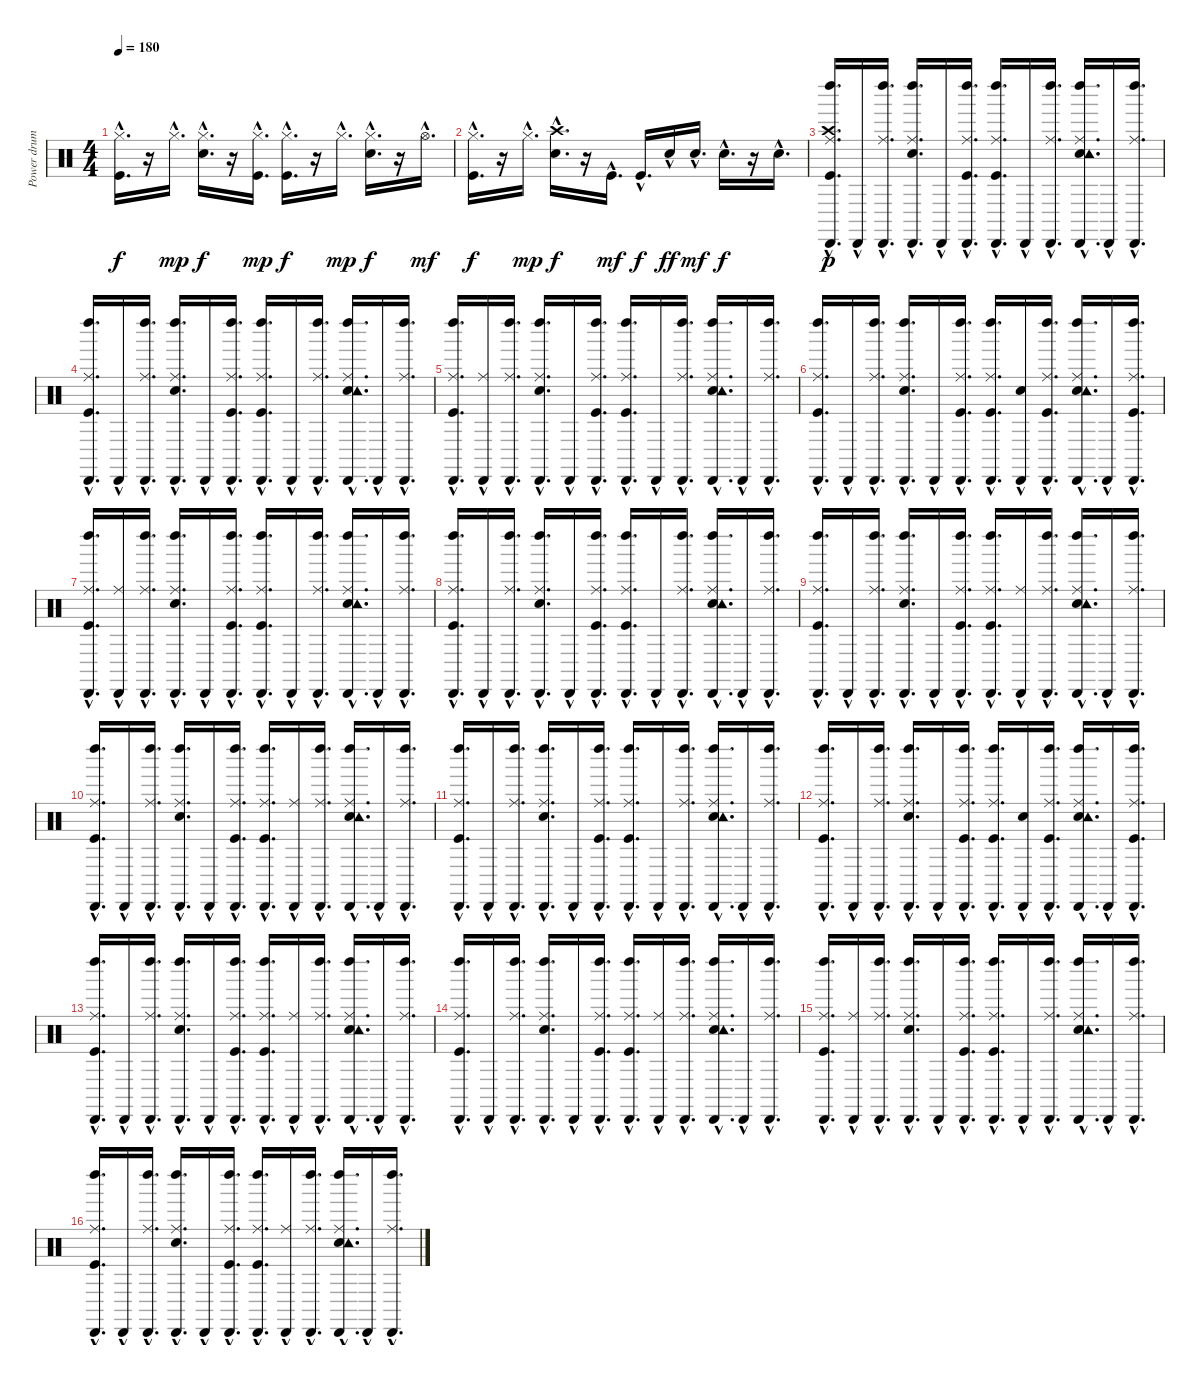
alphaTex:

\track ("Power drum" "Power drum") {instrument percussion}
\staff {score}
\articulation defaults
\ts (4 4)
\tempo 180
\clef neutral
\ks c
("Kick (hit)"{hac} "Hi-Hat (closed)"{hac}).16{d dy f} r.16 "Hi-Hat (closed)"{hac}.16{d dy mp} ("Snare (hit) 2"{hac} "Hi-Hat (closed)"{hac}).16{d dy f} r.16 ("Kick (hit)"{hac} "Hi-Hat (closed)"{hac}).16{d dy mp} ("Kick (hit)"{hac} "Hi-Hat (closed)"{hac}).16{d dy f} r.16 "Hi-Hat (closed)"{hac}.16{d dy mp} ("Snare (hit) 2"{hac} "Hi-Hat (closed)"{hac}).16{d dy f} r.16 "Hi-Hat (open)"{hac}.16{d dy mf} |
("Kick (hit)"{hac} "Hi-Hat (closed)"{hac}).16{d dy f} r.16 "Hi-Hat (closed)"{hac}.16{d dy mp} ("Snare (hit) 2"{hac} "Crash high (hit)"{hac}).16{d dy f} r.16 "Kick (hit)"{hac}.16{d dy mf} "Kick (hit)"{hac}.16{d dy f} "Snare (hit) 2"{hac}.16{dy ff} "Snare (hit) 2"{hac}.16{d dy mf} "Snare (hit) 2"{hac}.16{d dy f} r.16 "Snare (hit) 2"{hac}.16{d} |
("Kick (hit)"{hac} "Ride (middle)"{hac} "Crash high (hit)"{hac} "Left Maraca (hit)"{hac} "Cabasa (hit)"{hac}).16{d dy p} "Cabasa (hit)"{hac}.16 ("Ride (middle)"{hac} "Left Maraca (hit)"{hac} "Cabasa (hit)"{hac}).16{d} ("Snare (hit) 2"{hac} "Ride (middle)"{hac} "Left Maraca (hit)"{hac} "Cabasa (hit)"{hac}).16{d} "Cabasa (hit)"{hac}.16 ("Kick (hit)"{hac} "Ride (middle)"{hac} "Left Maraca (hit)"{hac} "Cabasa (hit)"{hac}).16{d} ("Kick (hit)"{hac} "Ride (middle)"{hac} "Left Maraca (hit)"{hac} "Cabasa (hit)"{hac}).16{d} "Cabasa (hit)"{hac}.16 ("Ride (middle)"{hac} "Left Maraca (hit)"{hac} "Cabasa (hit)"{hac}).16{d} ("Snare (hit) 2"{hac} "Ride (middle)"{hac} "Tambourine (hit)"{hac} "Left Maraca (hit)"{hac} "Cabasa (hit)"{hac}).16{d} "Cabasa (hit)"{hac}.16 ("Ride (middle)"{hac} "Left Maraca (hit)"{hac} "Cabasa (hit)"{hac}).16{d} |
("Kick (hit)"{hac} "Ride (middle)"{hac} "Left Maraca (hit)"{hac} "Cabasa (hit)"{hac}).16{d} "Cabasa (hit)"{hac}.16 ("Ride (middle)"{hac} "Left Maraca (hit)"{hac} "Cabasa (hit)"{hac}).16{d} ("Snare (hit) 2"{hac} "Ride (middle)"{hac} "Left Maraca (hit)"{hac} "Cabasa (hit)"{hac}).16{d} "Cabasa (hit)"{hac}.16 ("Kick (hit)"{hac} "Ride (middle)"{hac} "Left Maraca (hit)"{hac} "Cabasa (hit)"{hac}).16{d} ("Kick (hit)"{hac} "Ride (middle)"{hac} "Left Maraca (hit)"{hac} "Cabasa (hit)"{hac}).16{d} "Cabasa (hit)"{hac}.16 ("Ride (middle)"{hac} "Left Maraca (hit)"{hac} "Cabasa (hit)"{hac}).16{d} ("Snare (hit) 2"{hac} "Ride (middle)"{hac} "Tambourine (hit)"{hac} "Left Maraca (hit)"{hac} "Cabasa (hit)"{hac}).16{d} "Cabasa (hit)"{hac}.16 ("Ride (middle)"{hac} "Left Maraca (hit)"{hac} "Cabasa (hit)"{hac}).16{d} |
("Kick (hit)"{hac} "Ride (middle)"{hac} "Left Maraca (hit)"{hac} "Cabasa (hit)"{hac}).16{d} ("Ride (middle)"{hac} "Cabasa (hit)"{hac}).16 ("Ride (middle)"{hac} "Left Maraca (hit)"{hac} "Cabasa (hit)"{hac}).16{d} ("Snare (hit) 2"{hac} "Ride (middle)"{hac} "Left Maraca (hit)"{hac} "Cabasa (hit)"{hac}).16{d} "Cabasa (hit)"{hac}.16 ("Kick (hit)"{hac} "Ride (middle)"{hac} "Left Maraca (hit)"{hac} "Cabasa (hit)"{hac}).16{d} ("Kick (hit)"{hac} "Ride (middle)"{hac} "Left Maraca (hit)"{hac} "Cabasa (hit)"{hac}).16{d} "Cabasa (hit)"{hac}.16 ("Ride (middle)"{hac} "Left Maraca (hit)"{hac} "Cabasa (hit)"{hac}).16{d} ("Snare (hit) 2"{hac} "Ride (middle)"{hac} "Tambourine (hit)"{hac} "Left Maraca (hit)"{hac} "Cabasa (hit)"{hac}).16{d} "Cabasa (hit)"{hac}.16 ("Ride (middle)"{hac} "Left Maraca (hit)"{hac} "Cabasa (hit)"{hac}).16{d} |
("Kick (hit)"{hac} "Ride (middle)"{hac} "Left Maraca (hit)"{hac} "Cabasa (hit)"{hac}).16{d} "Cabasa (hit)"{hac}.16 ("Ride (middle)"{hac} "Left Maraca (hit)"{hac} "Cabasa (hit)"{hac}).16{d} ("Snare (hit) 2"{hac} "Ride (middle)"{hac} "Left Maraca (hit)"{hac} "Cabasa (hit)"{hac}).16{d} "Cabasa (hit)"{hac}.16 ("Kick (hit)"{hac} "Ride (middle)"{hac} "Left Maraca (hit)"{hac} "Cabasa (hit)"{hac}).16{d} ("Kick (hit)"{hac} "Ride (middle)"{hac} "Left Maraca (hit)"{hac} "Cabasa (hit)"{hac}).16{d} ("Snare (hit) 2"{hac} "Cabasa (hit)"{hac}).16 ("Kick (hit)"{hac} "Ride (middle)"{hac} "Left Maraca (hit)"{hac} "Cabasa (hit)"{hac}).16{d} ("Snare (hit) 2"{hac} "Ride (middle)"{hac} "Tambourine (hit)"{hac} "Left Maraca (hit)"{hac} "Cabasa (hit)"{hac}).16{d} "Cabasa (hit)"{hac}.16 ("Kick (hit)"{hac} "Ride (middle)"{hac} "Left Maraca (hit)"{hac} "Cabasa (hit)"{hac}).16{d} |
("Kick (hit)"{hac} "Ride (middle)"{hac} "Left Maraca (hit)"{hac} "Cabasa (hit)"{hac}).16{d} ("Ride (middle)"{hac} "Cabasa (hit)"{hac}).16 ("Ride (middle)"{hac} "Left Maraca (hit)"{hac} "Cabasa (hit)"{hac}).16{d} ("Snare (hit) 2"{hac} "Ride (middle)"{hac} "Left Maraca (hit)"{hac} "Cabasa (hit)"{hac}).16{d} "Cabasa (hit)"{hac}.16 ("Kick (hit)"{hac} "Ride (middle)"{hac} "Left Maraca (hit)"{hac} "Cabasa (hit)"{hac}).16{d} ("Kick (hit)"{hac} "Ride (middle)"{hac} "Left Maraca (hit)"{hac} "Cabasa (hit)"{hac}).16{d} "Cabasa (hit)"{hac}.16 ("Ride (middle)"{hac} "Left Maraca (hit)"{hac} "Cabasa (hit)"{hac}).16{d} ("Snare (hit) 2"{hac} "Ride (middle)"{hac} "Tambourine (hit)"{hac} "Left Maraca (hit)"{hac} "Cabasa (hit)"{hac}).16{d} "Cabasa (hit)"{hac}.16 ("Ride (middle)"{hac} "Left Maraca (hit)"{hac} "Cabasa (hit)"{hac}).16{d} |
("Kick (hit)"{hac} "Ride (middle)"{hac} "Left Maraca (hit)"{hac} "Cabasa (hit)"{hac}).16{d} "Cabasa (hit)"{hac}.16 ("Ride (middle)"{hac} "Left Maraca (hit)"{hac} "Cabasa (hit)"{hac}).16{d} ("Snare (hit) 2"{hac} "Ride (middle)"{hac} "Left Maraca (hit)"{hac} "Cabasa (hit)"{hac}).16{d} "Cabasa (hit)"{hac}.16 ("Kick (hit)"{hac} "Ride (middle)"{hac} "Left Maraca (hit)"{hac} "Cabasa (hit)"{hac}).16{d} ("Kick (hit)"{hac} "Ride (middle)"{hac} "Left Maraca (hit)"{hac} "Cabasa (hit)"{hac}).16{d} "Cabasa (hit)"{hac}.16 ("Ride (middle)"{hac} "Left Maraca (hit)"{hac} "Cabasa (hit)"{hac}).16{d} ("Snare (hit) 2"{hac} "Ride (middle)"{hac} "Tambourine (hit)"{hac} "Left Maraca (hit)"{hac} "Cabasa (hit)"{hac}).16{d} "Cabasa (hit)"{hac}.16 ("Ride (middle)"{hac} "Left Maraca (hit)"{hac} "Cabasa (hit)"{hac}).16{d} |
("Kick (hit)"{hac} "Ride (middle)"{hac} "Left Maraca (hit)"{hac} "Cabasa (hit)"{hac}).16{d} "Cabasa (hit)"{hac}.16 ("Ride (middle)"{hac} "Left Maraca (hit)"{hac} "Cabasa (hit)"{hac}).16{d} ("Snare (hit) 2"{hac} "Ride (middle)"{hac} "Left Maraca (hit)"{hac} "Cabasa (hit)"{hac}).16{d} "Cabasa (hit)"{hac}.16 ("Kick (hit)"{hac} "Ride (middle)"{hac} "Left Maraca (hit)"{hac} "Cabasa (hit)"{hac}).16{d} ("Kick (hit)"{hac} "Ride (middle)"{hac} "Left Maraca (hit)"{hac} "Cabasa (hit)"{hac}).16{d} ("Ride (middle)"{hac} "Cabasa (hit)"{hac}).16 ("Ride (middle)"{hac} "Left Maraca (hit)"{hac} "Cabasa (hit)"{hac}).16{d} ("Snare (hit) 2"{hac} "Ride (middle)"{hac} "Tambourine (hit)"{hac} "Left Maraca (hit)"{hac} "Cabasa (hit)"{hac}).16{d} "Cabasa (hit)"{hac}.16 ("Ride (middle)"{hac} "Left Maraca (hit)"{hac} "Cabasa (hit)"{hac}).16{d} |
("Kick (hit)"{hac} "Ride (middle)"{hac} "Left Maraca (hit)"{hac} "Cabasa (hit)"{hac}).16{d} "Cabasa (hit)"{hac}.16 ("Ride (middle)"{hac} "Left Maraca (hit)"{hac} "Cabasa (hit)"{hac}).16{d} ("Snare (hit) 2"{hac} "Ride (middle)"{hac} "Left Maraca (hit)"{hac} "Cabasa (hit)"{hac}).16{d} "Cabasa (hit)"{hac}.16 ("Kick (hit)"{hac} "Ride (middle)"{hac} "Left Maraca (hit)"{hac} "Cabasa (hit)"{hac}).16{d} ("Kick (hit)"{hac} "Ride (middle)"{hac} "Left Maraca (hit)"{hac} "Cabasa (hit)"{hac}).16{d} ("Ride (middle)"{hac} "Cabasa (hit)"{hac}).16 ("Ride (middle)"{hac} "Left Maraca (hit)"{hac} "Cabasa (hit)"{hac}).16{d} ("Snare (hit) 2"{hac} "Ride (middle)"{hac} "Tambourine (hit)"{hac} "Left Maraca (hit)"{hac} "Cabasa (hit)"{hac}).16{d} "Cabasa (hit)"{hac}.16 ("Ride (middle)"{hac} "Left Maraca (hit)"{hac} "Cabasa (hit)"{hac}).16{d} |
("Kick (hit)"{hac} "Ride (middle)"{hac} "Left Maraca (hit)"{hac} "Cabasa (hit)"{hac}).16{d} "Cabasa (hit)"{hac}.16 ("Ride (middle)"{hac} "Left Maraca (hit)"{hac} "Cabasa (hit)"{hac}).16{d} ("Snare (hit) 2"{hac} "Ride (middle)"{hac} "Left Maraca (hit)"{hac} "Cabasa (hit)"{hac}).16{d} "Cabasa (hit)"{hac}.16 ("Kick (hit)"{hac} "Ride (middle)"{hac} "Left Maraca (hit)"{hac} "Cabasa (hit)"{hac}).16{d} ("Kick (hit)"{hac} "Ride (middle)"{hac} "Left Maraca (hit)"{hac} "Cabasa (hit)"{hac}).16{d} "Cabasa (hit)"{hac}.16 ("Ride (middle)"{hac} "Left Maraca (hit)"{hac} "Cabasa (hit)"{hac}).16{d} ("Snare (hit) 2"{hac} "Ride (middle)"{hac} "Tambourine (hit)"{hac} "Left Maraca (hit)"{hac} "Cabasa (hit)"{hac}).16{d} "Cabasa (hit)"{hac}.16 ("Ride (middle)"{hac} "Left Maraca (hit)"{hac} "Cabasa (hit)"{hac}).16{d} |
("Kick (hit)"{hac} "Ride (middle)"{hac} "Left Maraca (hit)"{hac} "Cabasa (hit)"{hac}).16{d} "Cabasa (hit)"{hac}.16 ("Ride (middle)"{hac} "Left Maraca (hit)"{hac} "Cabasa (hit)"{hac}).16{d} ("Snare (hit) 2"{hac} "Ride (middle)"{hac} "Left Maraca (hit)"{hac} "Cabasa (hit)"{hac}).16{d} "Cabasa (hit)"{hac}.16 ("Kick (hit)"{hac} "Ride (middle)"{hac} "Left Maraca (hit)"{hac} "Cabasa (hit)"{hac}).16{d} ("Kick (hit)"{hac} "Ride (middle)"{hac} "Left Maraca (hit)"{hac} "Cabasa (hit)"{hac}).16{d} ("Snare (hit) 2"{hac} "Cabasa (hit)"{hac}).16 ("Kick (hit)"{hac} "Ride (middle)"{hac} "Left Maraca (hit)"{hac} "Cabasa (hit)"{hac}).16{d} ("Snare (hit) 2"{hac} "Ride (middle)"{hac} "Tambourine (hit)"{hac} "Left Maraca (hit)"{hac} "Cabasa (hit)"{hac}).16{d} "Cabasa (hit)"{hac}.16 ("Kick (hit)"{hac} "Ride (middle)"{hac} "Left Maraca (hit)"{hac} "Cabasa (hit)"{hac}).16{d} |
("Kick (hit)"{hac} "Ride (middle)"{hac} "Left Maraca (hit)"{hac} "Cabasa (hit)"{hac}).16{d} "Cabasa (hit)"{hac}.16 ("Ride (middle)"{hac} "Left Maraca (hit)"{hac} "Cabasa (hit)"{hac}).16{d} ("Snare (hit) 2"{hac} "Ride (middle)"{hac} "Left Maraca (hit)"{hac} "Cabasa (hit)"{hac}).16{d} "Cabasa (hit)"{hac}.16 ("Kick (hit)"{hac} "Ride (middle)"{hac} "Left Maraca (hit)"{hac} "Cabasa (hit)"{hac}).16{d} ("Kick (hit)"{hac} "Ride (middle)"{hac} "Left Maraca (hit)"{hac} "Cabasa (hit)"{hac}).16{d} ("Ride (middle)"{hac} "Cabasa (hit)"{hac}).16 ("Ride (middle)"{hac} "Left Maraca (hit)"{hac} "Cabasa (hit)"{hac}).16{d} ("Snare (hit) 2"{hac} "Ride (middle)"{hac} "Tambourine (hit)"{hac} "Left Maraca (hit)"{hac} "Cabasa (hit)"{hac}).16{d} "Cabasa (hit)"{hac}.16 ("Ride (middle)"{hac} "Left Maraca (hit)"{hac} "Cabasa (hit)"{hac}).16{d} |
("Kick (hit)"{hac} "Ride (middle)"{hac} "Left Maraca (hit)"{hac} "Cabasa (hit)"{hac}).16{d} "Cabasa (hit)"{hac}.16 ("Ride (middle)"{hac} "Left Maraca (hit)"{hac} "Cabasa (hit)"{hac}).16{d} ("Snare (hit) 2"{hac} "Ride (middle)"{hac} "Left Maraca (hit)"{hac} "Cabasa (hit)"{hac}).16{d} "Cabasa (hit)"{hac}.16 ("Kick (hit)"{hac} "Ride (middle)"{hac} "Left Maraca (hit)"{hac} "Cabasa (hit)"{hac}).16{d} ("Kick (hit)"{hac} "Ride (middle)"{hac} "Left Maraca (hit)"{hac} "Cabasa (hit)"{hac}).16{d} ("Ride (middle)"{hac} "Cabasa (hit)"{hac}).16 ("Ride (middle)"{hac} "Left Maraca (hit)"{hac} "Cabasa (hit)"{hac}).16{d} ("Snare (hit) 2"{hac} "Ride (middle)"{hac} "Tambourine (hit)"{hac} "Left Maraca (hit)"{hac} "Cabasa (hit)"{hac}).16{d} "Cabasa (hit)"{hac}.16 ("Ride (middle)"{hac} "Left Maraca (hit)"{hac} "Cabasa (hit)"{hac}).16{d} |
("Kick (hit)"{hac} "Ride (middle)"{hac} "Left Maraca (hit)"{hac} "Cabasa (hit)"{hac}).16{d} ("Ride (middle)"{hac} "Cabasa (hit)"{hac}).16 ("Ride (middle)"{hac} "Left Maraca (hit)"{hac} "Cabasa (hit)"{hac}).16{d} ("Snare (hit) 2"{hac} "Ride (middle)"{hac} "Left Maraca (hit)"{hac} "Cabasa (hit)"{hac}).16{d} "Cabasa (hit)"{hac}.16 ("Kick (hit)"{hac} "Ride (middle)"{hac} "Left Maraca (hit)"{hac} "Cabasa (hit)"{hac}).16{d} ("Kick (hit)"{hac} "Ride (middle)"{hac} "Left Maraca (hit)"{hac} "Cabasa (hit)"{hac}).16{d} "Cabasa (hit)"{hac}.16 ("Ride (middle)"{hac} "Left Maraca (hit)"{hac} "Cabasa (hit)"{hac}).16{d} ("Snare (hit) 2"{hac} "Ride (middle)"{hac} "Tambourine (hit)"{hac} "Left Maraca (hit)"{hac} "Cabasa (hit)"{hac}).16{d} "Cabasa (hit)"{hac}.16 ("Ride (middle)"{hac} "Left Maraca (hit)"{hac} "Cabasa (hit)"{hac}).16{d} |
("Kick (hit)"{hac} "Ride (middle)"{hac} "Left Maraca (hit)"{hac} "Cabasa (hit)"{hac}).16{d} "Cabasa (hit)"{hac}.16 ("Ride (middle)"{hac} "Left Maraca (hit)"{hac} "Cabasa (hit)"{hac}).16{d} ("Snare (hit) 2"{hac} "Ride (middle)"{hac} "Left Maraca (hit)"{hac} "Cabasa (hit)"{hac}).16{d} "Cabasa (hit)"{hac}.16 ("Kick (hit)"{hac} "Ride (middle)"{hac} "Left Maraca (hit)"{hac} "Cabasa (hit)"{hac}).16{d} ("Kick (hit)"{hac} "Ride (middle)"{hac} "Left Maraca (hit)"{hac} "Cabasa (hit)"{hac}).16{d} ("Ride (middle)"{hac} "Cabasa (hit)"{hac}).16 ("Ride (middle)"{hac} "Left Maraca (hit)"{hac} "Cabasa (hit)"{hac}).16{d} ("Snare (hit) 2"{hac} "Ride (middle)"{hac} "Tambourine (hit)"{hac} "Left Maraca (hit)"{hac} "Cabasa (hit)"{hac}).16{d} "Cabasa (hit)"{hac}.16 ("Ride (middle)"{hac} "Left Maraca (hit)"{hac} "Cabasa (hit)"{hac}).16{d}
